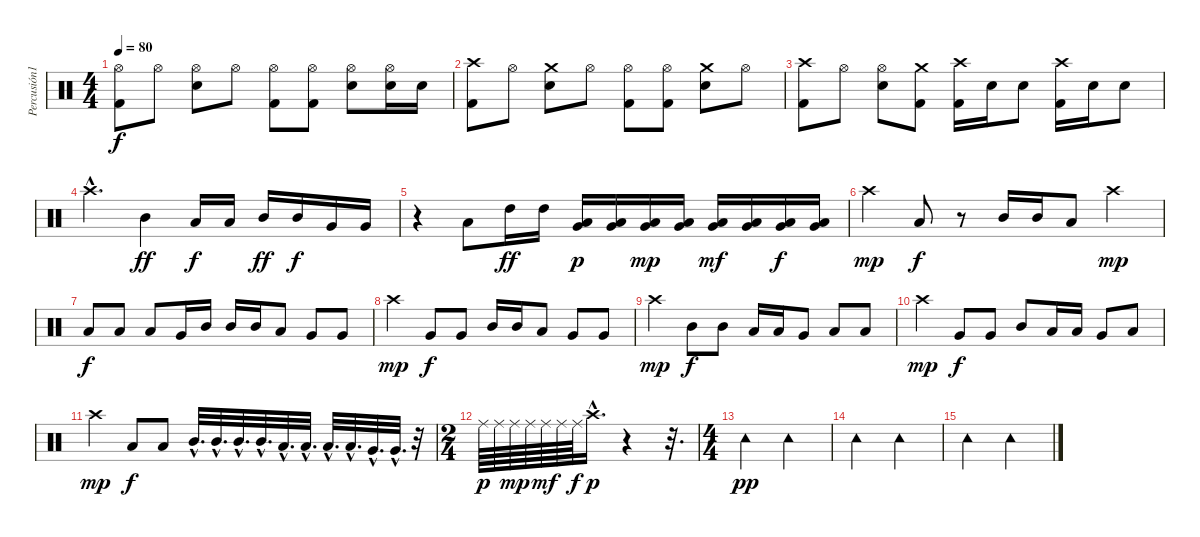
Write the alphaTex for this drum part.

\track ("Percusión1" "Percusión1") {instrument percussion}
\staff {score}
\articulation defaults
\ts (4 4)
\tempo 80
\clef neutral
\ks c
("Hi-Hat (open)" "Kick (hit) 2").8{dy f} "Hi-Hat (open)".8 ("Hi-Hat (open)" "Electric Snare (hit)").8 "Hi-Hat (open)".8 ("Hi-Hat (open)" "Kick (hit) 2").8 ("Hi-Hat (open)" "Kick (hit) 2").8 ("Hi-Hat (open)" "Electric Snare (hit)").8 ("Hi-Hat (open)" "Electric Snare (hit)").16 "Electric Snare (hit)".16 |
("Crash high (hit)" "Kick (hit) 2").8 "Hi-Hat (open)".8 ("Crash medium (hit)" "Electric Snare (hit)").8 "Hi-Hat (open)".8 ("Hi-Hat (open)" "Kick (hit) 2").8 ("Hi-Hat (open)" "Kick (hit) 2").8 ("Crash medium (hit)" "Electric Snare (hit)").8 "Hi-Hat (open)".8 |
("Crash high (hit)" "Kick (hit) 2").8 "Hi-Hat (open)".8 ("Hi-Hat (open)" "Electric Snare (hit)").8 ("Crash medium (hit)" "Kick (hit) 2").8 ("Crash high (hit)" "Kick (hit) 2").16 "Electric Snare (hit)".16 "Electric Snare (hit)".8 ("Crash high (hit)" "Kick (hit) 2").16 "Electric Snare (hit)".16 "Electric Snare (hit)".8 |
"Crash high (hit)"{hac}.4{d} "Mid Tom (hit)".4{dy ff} "Low Tom (hit)".16{dy f} "Low Tom (hit)".16 "Mid Tom (hit)".16{dy ff} "Mid Tom (hit)".16{dy f} "Very Low Tom (hit)".16 "Very Low Tom (hit)".16 |
r.4 "Low Tom (hit)".8 "High Tom (hit)".16{dy ff} "High Tom (hit)".16 ("Very Low Tom (hit)" "Low Floor Tom (hit)").16{dy p} ("Very Low Tom (hit)" "Low Floor Tom (hit)").16 ("Very Low Tom (hit)" "Low Floor Tom (hit)").16{dy mp} ("Very Low Tom (hit)" "Low Floor Tom (hit)").16 ("Low Tom (hit)" "Very Low Tom (hit)").16{dy mf} ("Low Tom (hit)" "Very Low Tom (hit)").16 ("Low Tom (hit)" "Very Low Tom (hit)").16{dy f} ("Low Tom (hit)" "Very Low Tom (hit)").16 |
"Crash high (hit)".4{dy mp} "Low Tom (hit)".8{dy f} r.8 "Mid Tom (hit)".16 "Mid Tom (hit)".16 "Low Tom (hit)".8 "Crash high (hit)".4{dy mp} |
"Low Tom (hit)".8{dy f} "Low Tom (hit)".8 "Low Tom (hit)".8 "Very Low Tom (hit)".16 "Mid Tom (hit)".16 "Mid Tom (hit)".16 "Mid Tom (hit)".16 "Low Tom (hit)".8 "Very Low Tom (hit)".8 "Very Low Tom (hit)".8 |
"Crash high (hit)".4{dy mp} "Very Low Tom (hit)".8{dy f} "Very Low Tom (hit)".8 "Mid Tom (hit)".16 "Mid Tom (hit)".16 "Low Tom (hit)".8 "Very Low Tom (hit)".8 "Very Low Tom (hit)".8 |
"Crash high (hit)".4{dy mp} "Mid Tom (hit)".8{dy f} "Mid Tom (hit)".8 "Low Tom (hit)".16 "Low Tom (hit)".16 "Very Low Tom (hit)".8 "Low Floor Tom (hit)".8 "Low Floor Tom (hit)".8 |
"Crash high (hit)".4{dy mp} "Very Low Tom (hit)".8{dy f} "Very Low Tom (hit)".8 "Mid Tom (hit)".8 "Low Tom (hit)".16 "Low Tom (hit)".16 "Very Low Tom (hit)".8 "Low Tom (hit)".8 |
"Crash high (hit)".4{dy mp} "Low Tom (hit)".8{dy f} "Low Tom (hit)".8 "Mid Tom (hit)"{hac}.32{d} "Mid Tom (hit)"{hac}.32{d} "Mid Tom (hit)"{hac}.32{d} "Mid Tom (hit)"{hac}.32{d} "Low Tom (hit)"{hac}.32{d} "Low Tom (hit)"{hac}.32{d} "Low Tom (hit)"{hac}.32{d} "Low Tom (hit)"{hac}.32{d} "Very Low Tom (hit)"{hac}.32{d} "Very Low Tom (hit)"{hac}.32{d} r.32 |
\ts (2 4)
"Ride (middle)".64{dy p} "Ride (middle)".64 "Ride (middle)".64{dy mp} "Ride (middle)".64 "Ride (middle)".64{dy mf} "Ride (middle)".64 "Ride (middle)".64{dy f} "Crash high (hit)"{hac}.16{d dy p} r.4 r.32{d} |
\ts (4 4)
"Tambourine (hit)".2{dy pp} "Tambourine (hit)".2 |
"Tambourine (hit)".2 "Tambourine (hit)".2 |
"Tambourine (hit)".2 "Tambourine (hit)".2
